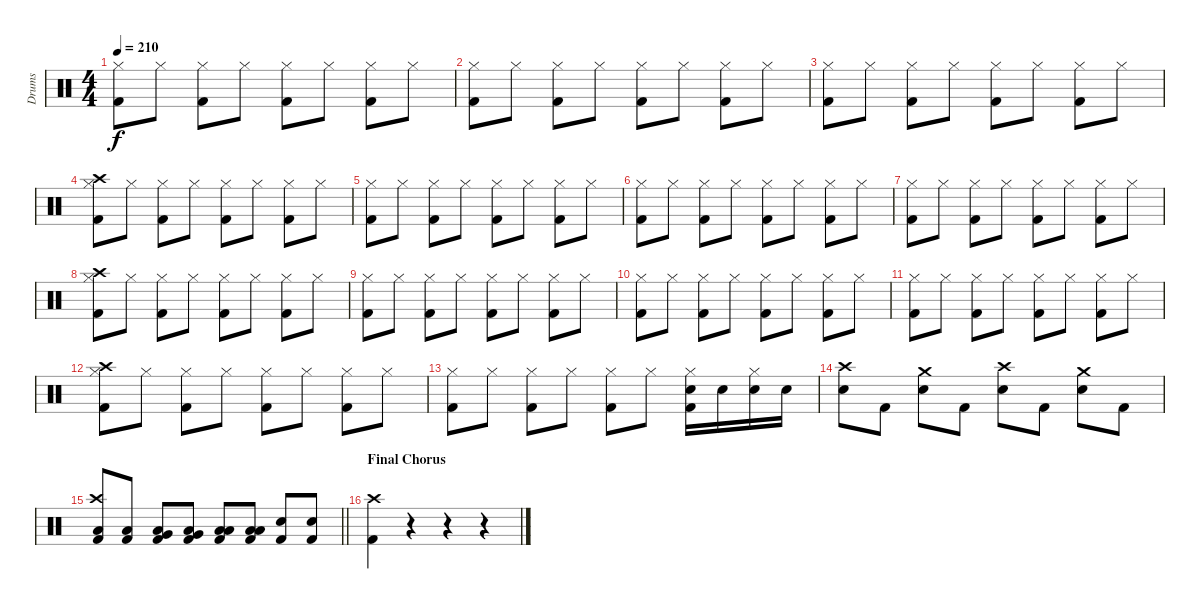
\track ("Drums" "Drums") {instrument percussion}
\staff {score}
\articulation defaults
\ts (4 4)
\tempo 210
\clef neutral
\ks c
("Hi-Hat (closed)" "Kick (hit) 2").8{dy f} "Hi-Hat (closed)".8 ("Hi-Hat (closed)" "Kick (hit) 2").8 "Hi-Hat (closed)".8 ("Hi-Hat (closed)" "Kick (hit) 2").8 "Hi-Hat (closed)".8 ("Hi-Hat (closed)" "Kick (hit) 2").8 "Hi-Hat (closed)".8 |
("Hi-Hat (closed)" "Kick (hit) 2").8 "Hi-Hat (closed)".8 ("Hi-Hat (closed)" "Kick (hit) 2").8 "Hi-Hat (closed)".8 ("Hi-Hat (closed)" "Kick (hit) 2").8 "Hi-Hat (closed)".8 ("Hi-Hat (closed)" "Kick (hit) 2").8 "Hi-Hat (closed)".8 |
("Hi-Hat (closed)" "Kick (hit) 2").8 "Hi-Hat (closed)".8 ("Hi-Hat (closed)" "Kick (hit) 2").8 "Hi-Hat (closed)".8 ("Hi-Hat (closed)" "Kick (hit) 2").8 "Hi-Hat (closed)".8 ("Hi-Hat (closed)" "Kick (hit) 2").8 "Hi-Hat (closed)".8 |
("Crash high (hit)" "Hi-Hat (closed)" "Kick (hit) 2").8 "Hi-Hat (closed)".8 ("Hi-Hat (closed)" "Kick (hit) 2").8 "Hi-Hat (closed)".8 ("Hi-Hat (closed)" "Kick (hit) 2").8 "Hi-Hat (closed)".8 ("Hi-Hat (closed)" "Kick (hit) 2").8 "Hi-Hat (closed)".8 |
("Hi-Hat (closed)" "Kick (hit) 2").8 "Hi-Hat (closed)".8 ("Hi-Hat (closed)" "Kick (hit) 2").8 "Hi-Hat (closed)".8 ("Hi-Hat (closed)" "Kick (hit) 2").8 "Hi-Hat (closed)".8 ("Hi-Hat (closed)" "Kick (hit) 2").8 "Hi-Hat (closed)".8 |
("Hi-Hat (closed)" "Kick (hit) 2").8 "Hi-Hat (closed)".8 ("Hi-Hat (closed)" "Kick (hit) 2").8 "Hi-Hat (closed)".8 ("Hi-Hat (closed)" "Kick (hit) 2").8 "Hi-Hat (closed)".8 ("Hi-Hat (closed)" "Kick (hit) 2").8 "Hi-Hat (closed)".8 |
("Hi-Hat (closed)" "Kick (hit) 2").8 "Hi-Hat (closed)".8 ("Hi-Hat (closed)" "Kick (hit) 2").8 "Hi-Hat (closed)".8 ("Hi-Hat (closed)" "Kick (hit) 2").8 "Hi-Hat (closed)".8 ("Hi-Hat (closed)" "Kick (hit) 2").8 "Hi-Hat (closed)".8 |
("Crash high (hit)" "Hi-Hat (closed)" "Kick (hit) 2").8 "Hi-Hat (closed)".8 ("Hi-Hat (closed)" "Kick (hit) 2").8 "Hi-Hat (closed)".8 ("Hi-Hat (closed)" "Kick (hit) 2").8 "Hi-Hat (closed)".8 ("Hi-Hat (closed)" "Kick (hit) 2").8 "Hi-Hat (closed)".8 |
("Hi-Hat (closed)" "Kick (hit) 2").8 "Hi-Hat (closed)".8 ("Hi-Hat (closed)" "Kick (hit) 2").8 "Hi-Hat (closed)".8 ("Hi-Hat (closed)" "Kick (hit) 2").8 "Hi-Hat (closed)".8 ("Hi-Hat (closed)" "Kick (hit) 2").8 "Hi-Hat (closed)".8 |
("Hi-Hat (closed)" "Kick (hit) 2").8 "Hi-Hat (closed)".8 ("Hi-Hat (closed)" "Kick (hit) 2").8 "Hi-Hat (closed)".8 ("Hi-Hat (closed)" "Kick (hit) 2").8 "Hi-Hat (closed)".8 ("Hi-Hat (closed)" "Kick (hit) 2").8 "Hi-Hat (closed)".8 |
("Hi-Hat (closed)" "Kick (hit) 2").8 "Hi-Hat (closed)".8 ("Hi-Hat (closed)" "Kick (hit) 2").8 "Hi-Hat (closed)".8 ("Hi-Hat (closed)" "Kick (hit) 2").8 "Hi-Hat (closed)".8 ("Hi-Hat (closed)" "Kick (hit) 2").8 "Hi-Hat (closed)".8 |
("Crash high (hit)" "Hi-Hat (closed)" "Kick (hit) 2").8 "Hi-Hat (closed)".8 ("Hi-Hat (closed)" "Kick (hit) 2").8 "Hi-Hat (closed)".8 ("Hi-Hat (closed)" "Kick (hit) 2").8 "Hi-Hat (closed)".8 ("Hi-Hat (closed)" "Kick (hit) 2").8 "Hi-Hat (closed)".8 |
("Hi-Hat (closed)" "Kick (hit) 2").8 "Hi-Hat (closed)".8 ("Hi-Hat (closed)" "Kick (hit) 2").8 "Hi-Hat (closed)".8 ("Hi-Hat (closed)" "Kick (hit) 2").8 "Hi-Hat (closed)".8 ("Hi-Hat (closed)" "Snare (hit) 2" "Kick (hit) 2").16 "Snare (hit) 2".16 ("Hi-Hat (closed)" "Snare (hit) 2").16 "Snare (hit) 2".16 |
("Crash high (hit)" "Snare (hit) 2").8 "Kick (hit) 2".8 ("Crash medium (hit)" "Snare (hit) 2").8 "Kick (hit) 2".8 ("Crash high (hit)" "Snare (hit) 2").8 "Kick (hit) 2".8 ("Crash medium (hit)" "Snare (hit) 2").8 "Kick (hit) 2".8 |
\barLineRight lightlight
("Crash high (hit)" "Low Floor Tom (hit)" "Kick (hit) 2").8 ("Low Floor Tom (hit)" "Kick (hit) 2").8 ("Very Low Tom (hit)" "Low Floor Tom (hit)" "Kick (hit) 2").8 ("Very Low Tom (hit)" "Low Floor Tom (hit)" "Kick (hit) 2").8 ("Low Tom (hit)" "Low Floor Tom (hit)" "Kick (hit) 2").8 ("Low Tom (hit)" "Low Floor Tom (hit)" "Kick (hit) 2").8 ("Snare (hit) 2" "Kick (hit) 2").8 ("Snare (hit) 2" "Kick (hit) 2").8 |
\section ("" "Final Chorus")
("Crash high (hit)" "Kick (hit) 2").4 r.4 r.4 r.4
